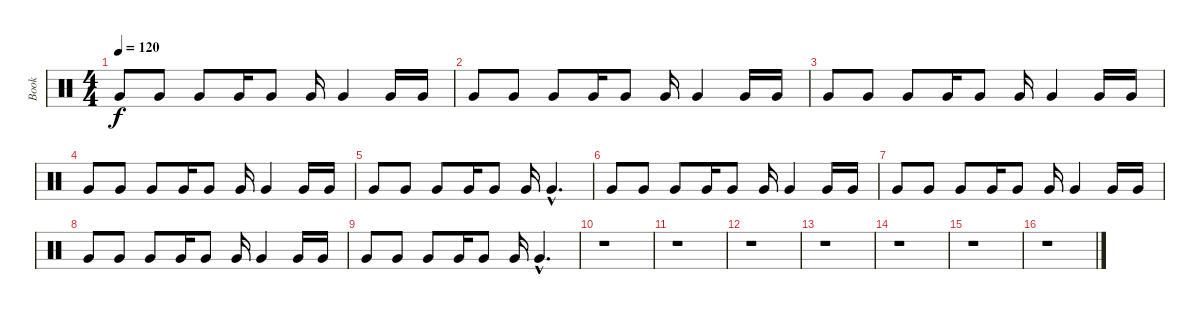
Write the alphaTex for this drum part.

\track ("Book" "Book") {instrument percussion}
\staff {score}
\articulation defaults
\ts (4 4)
\tempo 120
\clef neutral
\ks c "Very Low Tom (hit)".8{dy f} "Very Low Tom (hit)".8 "Very Low Tom (hit)".8 "Very Low Tom (hit)".16 "Very Low Tom (hit)".8 "Very Low Tom (hit)".16 "Very Low Tom (hit)".4 "Very Low Tom (hit)".16 "Very Low Tom (hit)".16
|
"Very Low Tom (hit)".8 "Very Low Tom (hit)".8 "Very Low Tom (hit)".8 "Very Low Tom (hit)".16 "Very Low Tom (hit)".8 "Very Low Tom (hit)".16 "Very Low Tom (hit)".4 "Very Low Tom (hit)".16 "Very Low Tom (hit)".16 |
"Very Low Tom (hit)".8 "Very Low Tom (hit)".8 "Very Low Tom (hit)".8 "Very Low Tom (hit)".16 "Very Low Tom (hit)".8 "Very Low Tom (hit)".16 "Very Low Tom (hit)".4 "Very Low Tom (hit)".16 "Very Low Tom (hit)".16 |
"Very Low Tom (hit)".8 "Very Low Tom (hit)".8 "Very Low Tom (hit)".8 "Very Low Tom (hit)".16 "Very Low Tom (hit)".8 "Very Low Tom (hit)".16 "Very Low Tom (hit)".4 "Very Low Tom (hit)".16 "Very Low Tom (hit)".16 |
"Very Low Tom (hit)".8 "Very Low Tom (hit)".8 "Very Low Tom (hit)".8 "Very Low Tom (hit)".16 "Very Low Tom (hit)".8 "Very Low Tom (hit)".16 "Very Low Tom (hit)"{hac}.4{d} |
"Very Low Tom (hit)".8 "Very Low Tom (hit)".8 "Very Low Tom (hit)".8 "Very Low Tom (hit)".16 "Very Low Tom (hit)".8 "Very Low Tom (hit)".16 "Very Low Tom (hit)".4 "Very Low Tom (hit)".16 "Very Low Tom (hit)".16 |
"Very Low Tom (hit)".8 "Very Low Tom (hit)".8 "Very Low Tom (hit)".8 "Very Low Tom (hit)".16 "Very Low Tom (hit)".8 "Very Low Tom (hit)".16 "Very Low Tom (hit)".4 "Very Low Tom (hit)".16 "Very Low Tom (hit)".16 |
"Very Low Tom (hit)".8 "Very Low Tom (hit)".8 "Very Low Tom (hit)".8 "Very Low Tom (hit)".16 "Very Low Tom (hit)".8 "Very Low Tom (hit)".16 "Very Low Tom (hit)".4 "Very Low Tom (hit)".16 "Very Low Tom (hit)".16 |
"Very Low Tom (hit)".8 "Very Low Tom (hit)".8 "Very Low Tom (hit)".8 "Very Low Tom (hit)".16 "Very Low Tom (hit)".8 "Very Low Tom (hit)".16 "Very Low Tom (hit)"{hac}.4{d} |
r.1 |
r.1 |
r.1 |
r.1 |
r.1 |
r.1 |
r.1
